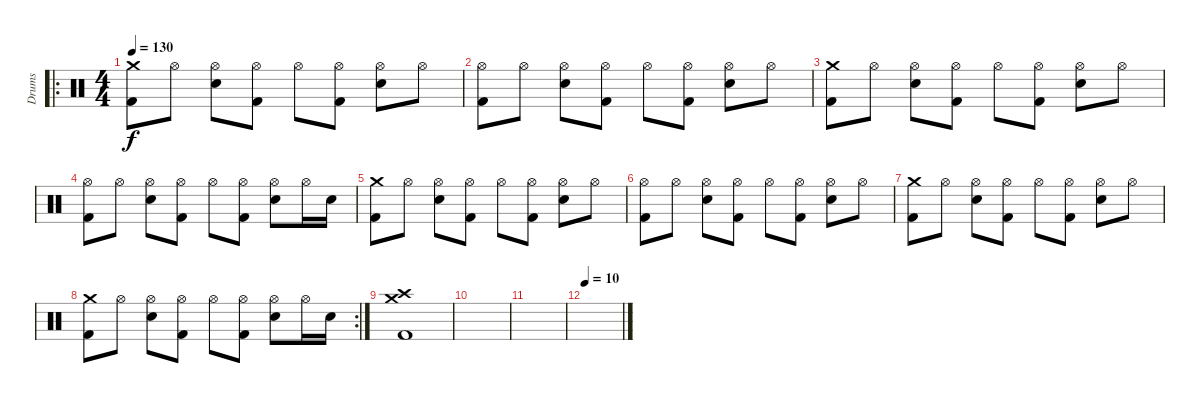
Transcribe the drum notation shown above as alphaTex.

\track ("Drums" "Drums") {instrument percussion}
\staff {score}
\articulation defaults
\ro
\ts (4 4)
\tempo 130
\clef neutral
\ks c
("Crash medium (hit)" "Kick (hit) 2").8{dy f} "Hi-Hat (open)".8 ("Hi-Hat (open)" "Electric Snare (hit)").8 ("Hi-Hat (open)" "Kick (hit) 2").8 "Hi-Hat (open)".8 ("Hi-Hat (open)" "Kick (hit) 2").8 ("Hi-Hat (open)" "Electric Snare (hit)").8 "Hi-Hat (open)".8 |
("Hi-Hat (open)" "Kick (hit) 2").8 "Hi-Hat (open)".8 ("Hi-Hat (open)" "Electric Snare (hit)").8 ("Hi-Hat (open)" "Kick (hit) 2").8 "Hi-Hat (open)".8 ("Hi-Hat (open)" "Kick (hit) 2").8 ("Hi-Hat (open)" "Electric Snare (hit)").8 "Hi-Hat (open)".8 |
("Crash medium (hit)" "Kick (hit) 2").8 "Hi-Hat (open)".8 ("Hi-Hat (open)" "Electric Snare (hit)").8 ("Hi-Hat (open)" "Kick (hit) 2").8 "Hi-Hat (open)".8 ("Hi-Hat (open)" "Kick (hit) 2").8 ("Hi-Hat (open)" "Electric Snare (hit)").8 "Hi-Hat (open)".8 |
("Hi-Hat (open)" "Kick (hit) 2").8 "Hi-Hat (open)".8 ("Hi-Hat (open)" "Electric Snare (hit)").8 ("Hi-Hat (open)" "Kick (hit) 2").8 "Hi-Hat (open)".8 ("Hi-Hat (open)" "Kick (hit) 2").8 ("Hi-Hat (open)" "Electric Snare (hit)").8 "Hi-Hat (open)".16 "Electric Snare (hit)".16 |
("Crash medium (hit)" "Kick (hit) 2").8 "Hi-Hat (open)".8 ("Hi-Hat (open)" "Electric Snare (hit)").8 ("Hi-Hat (open)" "Kick (hit) 2").8 "Hi-Hat (open)".8 ("Hi-Hat (open)" "Kick (hit) 2").8 ("Hi-Hat (open)" "Electric Snare (hit)").8 "Hi-Hat (open)".8 |
("Hi-Hat (open)" "Kick (hit) 2").8 "Hi-Hat (open)".8 ("Hi-Hat (open)" "Electric Snare (hit)").8 ("Hi-Hat (open)" "Kick (hit) 2").8 "Hi-Hat (open)".8 ("Hi-Hat (open)" "Kick (hit) 2").8 ("Hi-Hat (open)" "Electric Snare (hit)").8 "Hi-Hat (open)".8 |
("Crash medium (hit)" "Kick (hit) 2").8 "Hi-Hat (open)".8 ("Hi-Hat (open)" "Electric Snare (hit)").8 ("Hi-Hat (open)" "Kick (hit) 2").8 "Hi-Hat (open)".8 ("Hi-Hat (open)" "Kick (hit) 2").8 ("Hi-Hat (open)" "Electric Snare (hit)").8 "Hi-Hat (open)".8 |
\rc 2
("Crash medium (hit)" "Kick (hit) 2").8 "Hi-Hat (open)".8 ("Hi-Hat (open)" "Electric Snare (hit)").8 ("Hi-Hat (open)" "Kick (hit) 2").8 "Hi-Hat (open)".8 ("Hi-Hat (open)" "Kick (hit) 2").8 ("Hi-Hat (open)" "Electric Snare (hit)").8 "Hi-Hat (open)".16 "Electric Snare (hit)".16 |
("Crash medium (hit)" "Crash high (hit)" "Kick (hit) 2").1 |
|
|
\tempo 10
